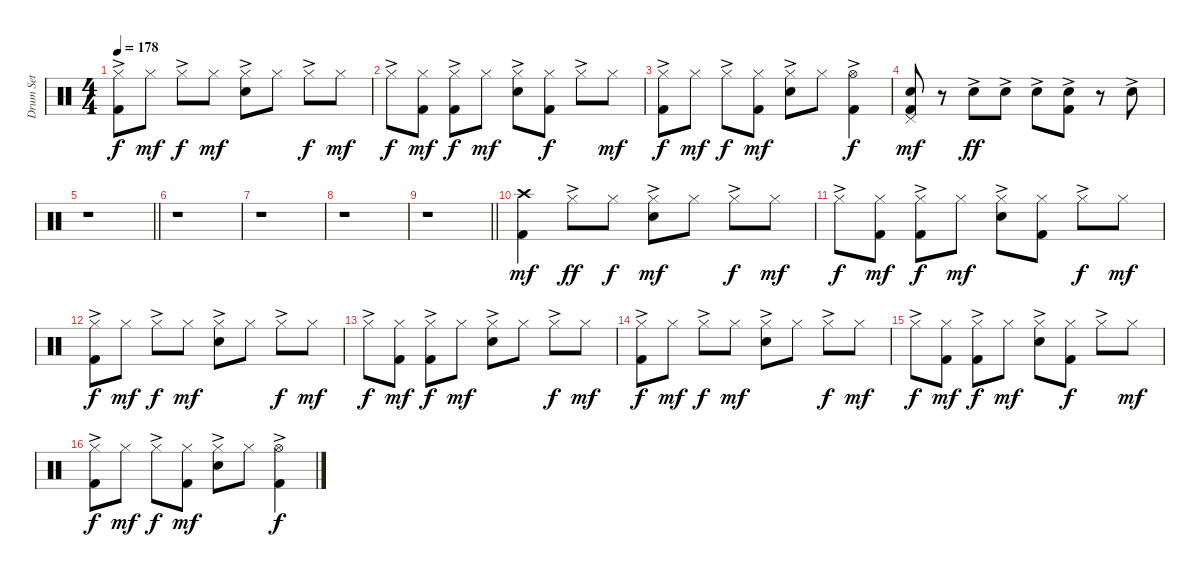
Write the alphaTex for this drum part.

\track ("Drum Set" "Drum Set") {instrument percussion}
\staff {score}
\articulation defaults
\ts (4 4)
\tempo 178
\clef neutral
\ks c
("Hi-Hat (closed)"{ac} "Kick (hit) 2").8{dy f} "Hi-Hat (closed)".8{dy mf} "Hi-Hat (closed)"{ac}.8{dy f} "Hi-Hat (closed)".8{dy mf} ("Hi-Hat (closed)"{ac} "Electric Snare (hit)").8 "Hi-Hat (closed)".8 "Hi-Hat (closed)"{ac}.8{dy f} "Hi-Hat (closed)".8{dy mf} |
"Hi-Hat (closed)"{ac}.8{dy f} ("Hi-Hat (closed)" "Kick (hit) 2").8{dy mf} ("Hi-Hat (closed)"{ac} "Kick (hit) 2").8{dy f} "Hi-Hat (closed)".8{dy mf} ("Hi-Hat (closed)"{ac} "Electric Snare (hit)").8 ("Hi-Hat (closed)" "Kick (hit) 2").8{dy f} "Hi-Hat (closed)"{ac}.8 "Hi-Hat (closed)".8{dy mf} |
("Hi-Hat (closed)"{ac} "Kick (hit) 2").8{dy f} "Hi-Hat (closed)".8{dy mf} "Hi-Hat (closed)"{ac}.8{dy f} ("Hi-Hat (closed)" "Kick (hit) 2").8{dy mf} ("Hi-Hat (closed)"{ac} "Electric Snare (hit)").8 "Hi-Hat (closed)".8 ("Hi-Hat (open)"{ac} "Kick (hit) 2").4{dy f} |
("Pedal Hi-Hat (hit)" "Electric Snare (hit)" "Kick (hit) 2").8{dy mf} r.8 "Electric Snare (hit)"{ac}.8{dy ff} "Electric Snare (hit)"{ac}.8 "Electric Snare (hit)"{ac}.8{beam Down} ("Electric Snare (hit)"{ac} "Kick (hit) 2").8{beam Down} r.8 "Electric Snare (hit)"{ac}.8 |
\barLineRight lightlight
r.1 |
r.1 |
r.1 |
r.1 |
\barLineRight lightlight
r.1 |
("Crash high (hit)" "Kick (hit) 2").4{dy mf} "Hi-Hat (closed)"{ac}.8{dy ff} "Hi-Hat (closed)".8{dy f} ("Hi-Hat (closed)"{ac} "Electric Snare (hit)").8{dy mf} "Hi-Hat (closed)".8 "Hi-Hat (closed)"{ac}.8{dy f} "Hi-Hat (closed)".8{dy mf} |
"Hi-Hat (closed)"{ac}.8{dy f} ("Hi-Hat (closed)" "Kick (hit) 2").8{dy mf} ("Hi-Hat (closed)"{ac} "Kick (hit) 2").8{dy f} "Hi-Hat (closed)".8{dy mf} ("Hi-Hat (closed)"{ac} "Electric Snare (hit)").8 ("Hi-Hat (closed)" "Kick (hit) 2").8 "Hi-Hat (closed)"{ac}.8{dy f} "Hi-Hat (closed)".8{dy mf} |
("Hi-Hat (closed)"{ac} "Kick (hit) 2").8{dy f} "Hi-Hat (closed)".8{dy mf} "Hi-Hat (closed)"{ac}.8{dy f} "Hi-Hat (closed)".8{dy mf} ("Hi-Hat (closed)"{ac} "Electric Snare (hit)").8 "Hi-Hat (closed)".8 "Hi-Hat (closed)"{ac}.8{dy f} "Hi-Hat (closed)".8{dy mf} |
"Hi-Hat (closed)"{ac}.8{dy f} ("Hi-Hat (closed)" "Kick (hit) 2").8{dy mf} ("Hi-Hat (closed)"{ac} "Kick (hit) 2").8{dy f} "Hi-Hat (closed)".8{dy mf} ("Hi-Hat (closed)"{ac} "Electric Snare (hit)").8 "Hi-Hat (closed)".8 "Hi-Hat (closed)"{ac}.8{dy f} "Hi-Hat (closed)".8{dy mf} |
("Hi-Hat (closed)"{ac} "Kick (hit) 2").8{dy f} "Hi-Hat (closed)".8{dy mf} "Hi-Hat (closed)"{ac}.8{dy f} "Hi-Hat (closed)".8{dy mf} ("Hi-Hat (closed)"{ac} "Electric Snare (hit)").8 "Hi-Hat (closed)".8 "Hi-Hat (closed)"{ac}.8{dy f} "Hi-Hat (closed)".8{dy mf} |
"Hi-Hat (closed)"{ac}.8{dy f} ("Hi-Hat (closed)" "Kick (hit) 2").8{dy mf} ("Hi-Hat (closed)"{ac} "Kick (hit) 2").8{dy f} "Hi-Hat (closed)".8{dy mf} ("Hi-Hat (closed)"{ac} "Electric Snare (hit)").8 ("Hi-Hat (closed)" "Kick (hit) 2").8{dy f} "Hi-Hat (closed)"{ac}.8 "Hi-Hat (closed)".8{dy mf} |
("Hi-Hat (closed)"{ac} "Kick (hit) 2").8{dy f} "Hi-Hat (closed)".8{dy mf} "Hi-Hat (closed)"{ac}.8{dy f} ("Hi-Hat (closed)" "Kick (hit) 2").8{dy mf} ("Hi-Hat (closed)"{ac} "Electric Snare (hit)").8 "Hi-Hat (closed)".8 ("Hi-Hat (open)"{ac} "Kick (hit) 2").4{dy f}
